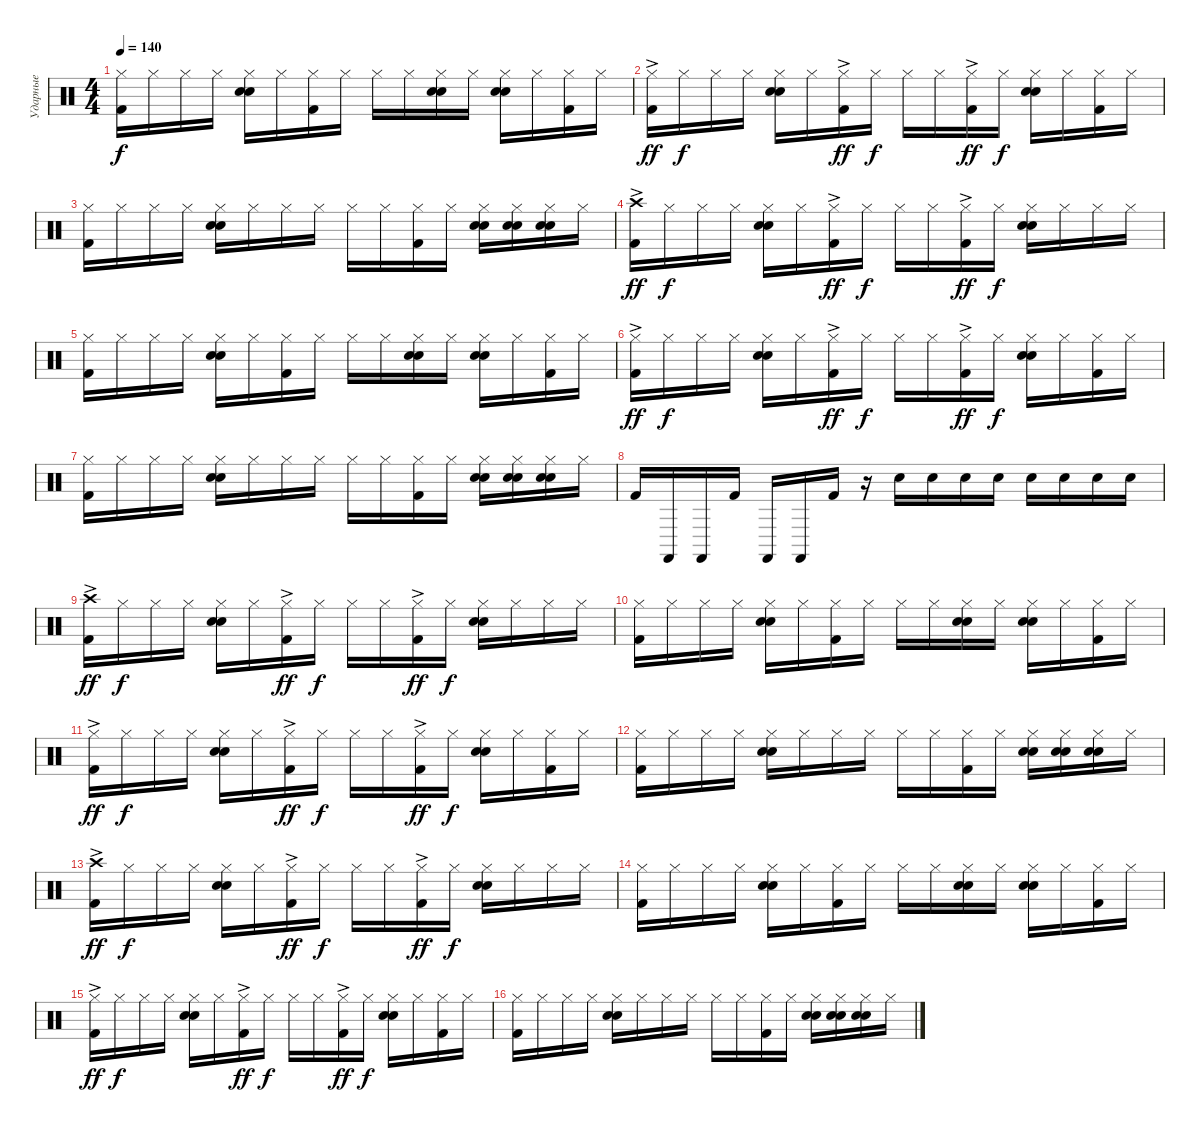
\track ("Ударные" "Ударные") {instrument percussion}
\staff {score}
\articulation defaults
\ts (4 4)
\tempo 140
\clef neutral
\ks c
("Kick (hit) 2" "Hi-Hat (closed)").16{dy f} "Hi-Hat (closed)".16 "Hi-Hat (closed)".16 "Hi-Hat (closed)".16 ("Snare (hit) 2" "Hand Clap (hit)" "Hi-Hat (closed)").16 "Hi-Hat (closed)".16 ("Kick (hit) 2" "Hi-Hat (closed)").16 "Hi-Hat (closed)".16 "Hi-Hat (closed)".16 "Hi-Hat (closed)".16 ("Snare (hit) 2" "Hand Clap (hit)" "Hi-Hat (closed)").16 "Hi-Hat (closed)".16 ("Snare (hit) 2" "Hand Clap (hit)" "Hi-Hat (closed)").16 "Hi-Hat (closed)".16 ("Kick (hit) 2" "Hi-Hat (closed)").16 "Hi-Hat (closed)".16 |
("Kick (hit) 2"{ac} "Hi-Hat (closed)").16{dy ff} "Hi-Hat (closed)".16{dy f} "Hi-Hat (closed)".16 "Hi-Hat (closed)".16 ("Snare (hit) 2" "Hand Clap (hit)" "Hi-Hat (closed)").16 "Hi-Hat (closed)".16 ("Kick (hit) 2"{ac} "Hi-Hat (closed)").16{dy ff} "Hi-Hat (closed)".16{dy f} "Hi-Hat (closed)".16 "Hi-Hat (closed)".16 ("Kick (hit) 2"{ac} "Hi-Hat (closed)").16{dy ff} "Hi-Hat (closed)".16{dy f} ("Snare (hit) 2" "Hand Clap (hit)" "Hi-Hat (closed)").16 "Hi-Hat (closed)".16 ("Kick (hit) 2" "Hi-Hat (closed)").16 "Hi-Hat (closed)".16 |
("Kick (hit) 2" "Hi-Hat (closed)").16 "Hi-Hat (closed)".16 "Hi-Hat (closed)".16 "Hi-Hat (closed)".16 ("Snare (hit) 2" "Hand Clap (hit)" "Hi-Hat (closed)").16 "Hi-Hat (closed)".16 "Hi-Hat (closed)".16 "Hi-Hat (closed)".16 "Hi-Hat (closed)".16 "Hi-Hat (closed)".16 ("Kick (hit) 2" "Hi-Hat (closed)").16 "Hi-Hat (closed)".16 ("Snare (hit) 2" "Hand Clap (hit)" "Hi-Hat (closed)").16 ("Snare (hit) 2" "Hand Clap (hit)" "Hi-Hat (closed)").16 ("Snare (hit) 2" "Hand Clap (hit)" "Hi-Hat (closed)").16 "Hi-Hat (closed)".16 |
("Kick (hit) 2"{ac} "Crash high (hit)").16{dy ff} "Hi-Hat (closed)".16{dy f} "Hi-Hat (closed)".16 "Hi-Hat (closed)".16 ("Snare (hit) 2" "Hand Clap (hit)" "Hi-Hat (closed)").16 "Hi-Hat (closed)".16 ("Kick (hit) 2"{ac} "Hi-Hat (closed)").16{dy ff} "Hi-Hat (closed)".16{dy f} "Hi-Hat (closed)".16 "Hi-Hat (closed)".16 ("Kick (hit) 2"{ac} "Hi-Hat (closed)").16{dy ff} "Hi-Hat (closed)".16{dy f} ("Snare (hit) 2" "Hand Clap (hit)" "Hi-Hat (closed)").16 "Hi-Hat (closed)".16 "Hi-Hat (closed)".16 "Hi-Hat (closed)".16 |
("Kick (hit) 2" "Hi-Hat (closed)").16 "Hi-Hat (closed)".16 "Hi-Hat (closed)".16 "Hi-Hat (closed)".16 ("Snare (hit) 2" "Hand Clap (hit)" "Hi-Hat (closed)").16 "Hi-Hat (closed)".16 ("Kick (hit) 2" "Hi-Hat (closed)").16 "Hi-Hat (closed)".16 "Hi-Hat (closed)".16 "Hi-Hat (closed)".16 ("Snare (hit) 2" "Hand Clap (hit)" "Hi-Hat (closed)").16 "Hi-Hat (closed)".16 ("Snare (hit) 2" "Hand Clap (hit)" "Hi-Hat (closed)").16 "Hi-Hat (closed)".16 ("Kick (hit) 2" "Hi-Hat (closed)").16 "Hi-Hat (closed)".16 |
("Kick (hit) 2"{ac} "Hi-Hat (closed)").16{dy ff} "Hi-Hat (closed)".16{dy f} "Hi-Hat (closed)".16 "Hi-Hat (closed)".16 ("Snare (hit) 2" "Hand Clap (hit)" "Hi-Hat (closed)").16 "Hi-Hat (closed)".16 ("Kick (hit) 2"{ac} "Hi-Hat (closed)").16{dy ff} "Hi-Hat (closed)".16{dy f} "Hi-Hat (closed)".16 "Hi-Hat (closed)".16 ("Kick (hit) 2"{ac} "Hi-Hat (closed)").16{dy ff} "Hi-Hat (closed)".16{dy f} ("Snare (hit) 2" "Hand Clap (hit)" "Hi-Hat (closed)").16 "Hi-Hat (closed)".16 ("Kick (hit) 2" "Hi-Hat (closed)").16 "Hi-Hat (closed)".16 |
("Kick (hit) 2" "Hi-Hat (closed)").16 "Hi-Hat (closed)".16 "Hi-Hat (closed)".16 "Hi-Hat (closed)".16 ("Snare (hit) 2" "Hand Clap (hit)" "Hi-Hat (closed)").16 "Hi-Hat (closed)".16 "Hi-Hat (closed)".16 "Hi-Hat (closed)".16 "Hi-Hat (closed)".16 "Hi-Hat (closed)".16 ("Kick (hit) 2" "Hi-Hat (closed)").16 "Hi-Hat (closed)".16 ("Snare (hit) 2" "Hand Clap (hit)" "Hi-Hat (closed)").16 ("Snare (hit) 2" "Hand Clap (hit)" "Hi-Hat (closed)").16 ("Snare (hit) 2" "Hand Clap (hit)" "Hi-Hat (closed)").16 "Hi-Hat (closed)".16 |
"Kick (hit) 2".16 "Castanets (hit)".16 "Castanets (hit)".16 "Kick (hit) 2".16 "Castanets (hit)".16 "Castanets (hit)".16 "Kick (hit) 2".16 r.16 "Snare (hit) 2".16 "Snare (hit) 2".16 "Snare (hit) 2".16 "Snare (hit) 2".16 "Snare (hit) 2".16 "Snare (hit) 2".16 "Snare (hit) 2".16 "Snare (hit) 2".16 |
("Kick (hit) 2"{ac} "Crash high (hit)").16{dy ff} "Hi-Hat (closed)".16{dy f} "Hi-Hat (closed)".16 "Hi-Hat (closed)".16 ("Snare (hit) 2" "Hand Clap (hit)" "Hi-Hat (closed)").16 "Hi-Hat (closed)".16 ("Kick (hit) 2"{ac} "Hi-Hat (closed)").16{dy ff} "Hi-Hat (closed)".16{dy f} "Hi-Hat (closed)".16 "Hi-Hat (closed)".16 ("Kick (hit) 2"{ac} "Hi-Hat (closed)").16{dy ff} "Hi-Hat (closed)".16{dy f} ("Snare (hit) 2" "Hand Clap (hit)" "Hi-Hat (closed)").16 "Hi-Hat (closed)".16 "Hi-Hat (closed)".16 "Hi-Hat (closed)".16 |
("Kick (hit) 2" "Hi-Hat (closed)").16 "Hi-Hat (closed)".16 "Hi-Hat (closed)".16 "Hi-Hat (closed)".16 ("Snare (hit) 2" "Hand Clap (hit)" "Hi-Hat (closed)").16 "Hi-Hat (closed)".16 ("Kick (hit) 2" "Hi-Hat (closed)").16 "Hi-Hat (closed)".16 "Hi-Hat (closed)".16 "Hi-Hat (closed)".16 ("Snare (hit) 2" "Hand Clap (hit)" "Hi-Hat (closed)").16 "Hi-Hat (closed)".16 ("Snare (hit) 2" "Hand Clap (hit)" "Hi-Hat (closed)").16 "Hi-Hat (closed)".16 ("Kick (hit) 2" "Hi-Hat (closed)").16 "Hi-Hat (closed)".16 |
("Kick (hit) 2"{ac} "Hi-Hat (closed)").16{dy ff} "Hi-Hat (closed)".16{dy f} "Hi-Hat (closed)".16 "Hi-Hat (closed)".16 ("Snare (hit) 2" "Hand Clap (hit)" "Hi-Hat (closed)").16 "Hi-Hat (closed)".16 ("Kick (hit) 2"{ac} "Hi-Hat (closed)").16{dy ff} "Hi-Hat (closed)".16{dy f} "Hi-Hat (closed)".16 "Hi-Hat (closed)".16 ("Kick (hit) 2"{ac} "Hi-Hat (closed)").16{dy ff} "Hi-Hat (closed)".16{dy f} ("Snare (hit) 2" "Hand Clap (hit)" "Hi-Hat (closed)").16 "Hi-Hat (closed)".16 ("Kick (hit) 2" "Hi-Hat (closed)").16 "Hi-Hat (closed)".16 |
("Kick (hit) 2" "Hi-Hat (closed)").16 "Hi-Hat (closed)".16 "Hi-Hat (closed)".16 "Hi-Hat (closed)".16 ("Snare (hit) 2" "Hand Clap (hit)" "Hi-Hat (closed)").16 "Hi-Hat (closed)".16 "Hi-Hat (closed)".16 "Hi-Hat (closed)".16 "Hi-Hat (closed)".16 "Hi-Hat (closed)".16 ("Kick (hit) 2" "Hi-Hat (closed)").16 "Hi-Hat (closed)".16 ("Snare (hit) 2" "Hand Clap (hit)" "Hi-Hat (closed)").16 ("Snare (hit) 2" "Hand Clap (hit)" "Hi-Hat (closed)").16 ("Snare (hit) 2" "Hand Clap (hit)" "Hi-Hat (closed)").16 "Hi-Hat (closed)".16 |
("Kick (hit) 2"{ac} "Crash high (hit)").16{dy ff} "Hi-Hat (closed)".16{dy f} "Hi-Hat (closed)".16 "Hi-Hat (closed)".16 ("Snare (hit) 2" "Hand Clap (hit)" "Hi-Hat (closed)").16 "Hi-Hat (closed)".16 ("Kick (hit) 2"{ac} "Hi-Hat (closed)").16{dy ff} "Hi-Hat (closed)".16{dy f} "Hi-Hat (closed)".16 "Hi-Hat (closed)".16 ("Kick (hit) 2"{ac} "Hi-Hat (closed)").16{dy ff} "Hi-Hat (closed)".16{dy f} ("Snare (hit) 2" "Hand Clap (hit)" "Hi-Hat (closed)").16 "Hi-Hat (closed)".16 "Hi-Hat (closed)".16 "Hi-Hat (closed)".16 |
("Kick (hit) 2" "Hi-Hat (closed)").16 "Hi-Hat (closed)".16 "Hi-Hat (closed)".16 "Hi-Hat (closed)".16 ("Snare (hit) 2" "Hand Clap (hit)" "Hi-Hat (closed)").16 "Hi-Hat (closed)".16 ("Kick (hit) 2" "Hi-Hat (closed)").16 "Hi-Hat (closed)".16 "Hi-Hat (closed)".16 "Hi-Hat (closed)".16 ("Snare (hit) 2" "Hand Clap (hit)" "Hi-Hat (closed)").16 "Hi-Hat (closed)".16 ("Snare (hit) 2" "Hand Clap (hit)" "Hi-Hat (closed)").16 "Hi-Hat (closed)".16 ("Kick (hit) 2" "Hi-Hat (closed)").16 "Hi-Hat (closed)".16 |
("Kick (hit) 2"{ac} "Hi-Hat (closed)").16{dy ff} "Hi-Hat (closed)".16{dy f} "Hi-Hat (closed)".16 "Hi-Hat (closed)".16 ("Snare (hit) 2" "Hand Clap (hit)" "Hi-Hat (closed)").16 "Hi-Hat (closed)".16 ("Kick (hit) 2"{ac} "Hi-Hat (closed)").16{dy ff} "Hi-Hat (closed)".16{dy f} "Hi-Hat (closed)".16 "Hi-Hat (closed)".16 ("Kick (hit) 2"{ac} "Hi-Hat (closed)").16{dy ff} "Hi-Hat (closed)".16{dy f} ("Snare (hit) 2" "Hand Clap (hit)" "Hi-Hat (closed)").16 "Hi-Hat (closed)".16 ("Kick (hit) 2" "Hi-Hat (closed)").16 "Hi-Hat (closed)".16 |
("Kick (hit) 2" "Hi-Hat (closed)").16 "Hi-Hat (closed)".16 "Hi-Hat (closed)".16 "Hi-Hat (closed)".16 ("Snare (hit) 2" "Hand Clap (hit)" "Hi-Hat (closed)").16 "Hi-Hat (closed)".16 "Hi-Hat (closed)".16 "Hi-Hat (closed)".16 "Hi-Hat (closed)".16 "Hi-Hat (closed)".16 ("Kick (hit) 2" "Hi-Hat (closed)").16 "Hi-Hat (closed)".16 ("Snare (hit) 2" "Hand Clap (hit)" "Hi-Hat (closed)").16 ("Snare (hit) 2" "Hand Clap (hit)" "Hi-Hat (closed)").16 ("Snare (hit) 2" "Hand Clap (hit)" "Hi-Hat (closed)").16 "Hi-Hat (closed)".16
